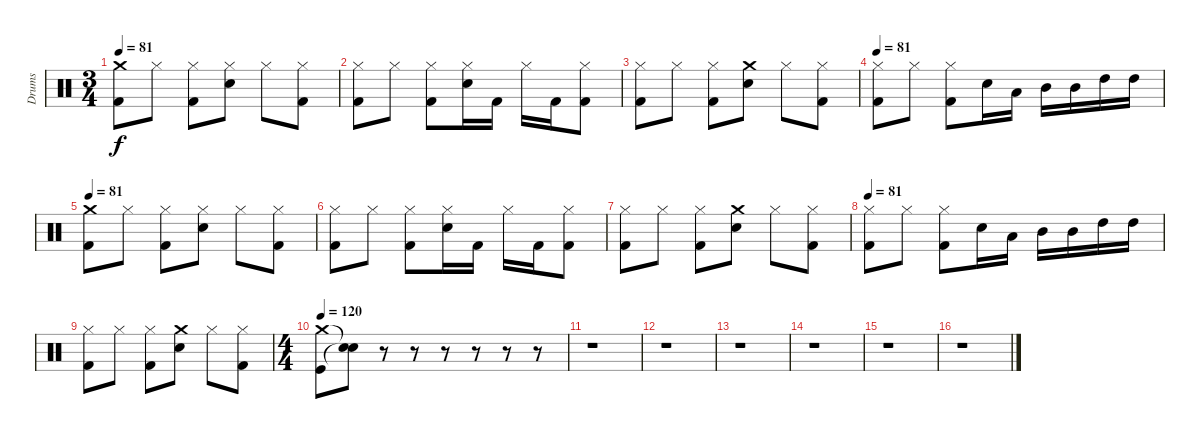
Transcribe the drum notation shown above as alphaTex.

\track ("Drums" "Drums") {instrument percussion}
\staff {score}
\articulation defaults
\ts (3 4)
\tempo 81
\clef neutral
\ks c
("Crash medium (hit)" "Kick (hit) 2").8{dy f} "Hi-Hat (closed)".8 ("Hi-Hat (closed)" "Kick (hit) 2").8 ("Hi-Hat (closed)" "Electric Snare (hit)").8 "Hi-Hat (closed)".8 ("Hi-Hat (closed)" "Kick (hit) 2").8 |
("Hi-Hat (closed)" "Kick (hit) 2").8 "Hi-Hat (closed)".8 ("Hi-Hat (closed)" "Kick (hit) 2").8 ("Hi-Hat (closed)" "Electric Snare (hit)").16 "Kick (hit) 2".16 "Hi-Hat (closed)".16 "Kick (hit) 2".16 ("Hi-Hat (closed)" "Kick (hit) 2").8 |
("Hi-Hat (closed)" "Kick (hit) 2").8 "Hi-Hat (closed)".8 ("Hi-Hat (closed)" "Kick (hit) 2").8 ("Crash medium (hit)" "Electric Snare (hit)").8 "Hi-Hat (closed)".8 ("Hi-Hat (closed)" "Kick (hit) 2").8 |
\tempo 81
("Hi-Hat (closed)" "Kick (hit) 2").8 "Hi-Hat (closed)".8 ("Hi-Hat (closed)" "Kick (hit) 2").8 "Electric Snare (hit)".16 "Low Tom (hit)".16 "Mid Tom (hit)".16 "Mid Tom (hit)".16 "High Tom (hit)".16 "High Tom (hit)".16 |
\tempo 81
("Crash medium (hit)" "Kick (hit) 2").8 "Hi-Hat (closed)".8 ("Hi-Hat (closed)" "Kick (hit) 2").8 ("Hi-Hat (closed)" "Electric Snare (hit)").8 "Hi-Hat (closed)".8 ("Hi-Hat (closed)" "Kick (hit) 2").8 |
("Hi-Hat (closed)" "Kick (hit) 2").8 "Hi-Hat (closed)".8 ("Hi-Hat (closed)" "Kick (hit) 2").8 ("Hi-Hat (closed)" "Electric Snare (hit)").16 "Kick (hit) 2".16 "Hi-Hat (closed)".16 "Kick (hit) 2".16 ("Hi-Hat (closed)" "Kick (hit) 2").8 |
("Hi-Hat (closed)" "Kick (hit) 2").8 "Hi-Hat (closed)".8 ("Hi-Hat (closed)" "Kick (hit) 2").8 ("Crash medium (hit)" "Electric Snare (hit)").8 "Hi-Hat (closed)".8 ("Hi-Hat (closed)" "Kick (hit) 2").8 |
\tempo 81
("Hi-Hat (closed)" "Kick (hit) 2").8 "Hi-Hat (closed)".8 ("Hi-Hat (closed)" "Kick (hit) 2").8 "Electric Snare (hit)".16 "Low Tom (hit)".16 "Mid Tom (hit)".16 "Mid Tom (hit)".16 "High Tom (hit)".16 "High Tom (hit)".16 |
("Hi-Hat (closed)" "Kick (hit) 2").8 "Hi-Hat (closed)".8 ("Hi-Hat (closed)" "Kick (hit) 2").8 ("Crash medium (hit)" "Electric Snare (hit)").8 "Hi-Hat (closed)".8 ("Hi-Hat (closed)" "Kick (hit) 2").8 |
\ts (4 4)
\tempo 120
("Crash medium (hit)" "Kick (hit)").8 ("Snare (hit)"{t} "Snare (hit)"{t}).8 r.8 r.8 r.8 r.8 r.8 r.8 |
r.1 |
r.1 |
r.1 |
r.1 |
r.1 |
r.1
